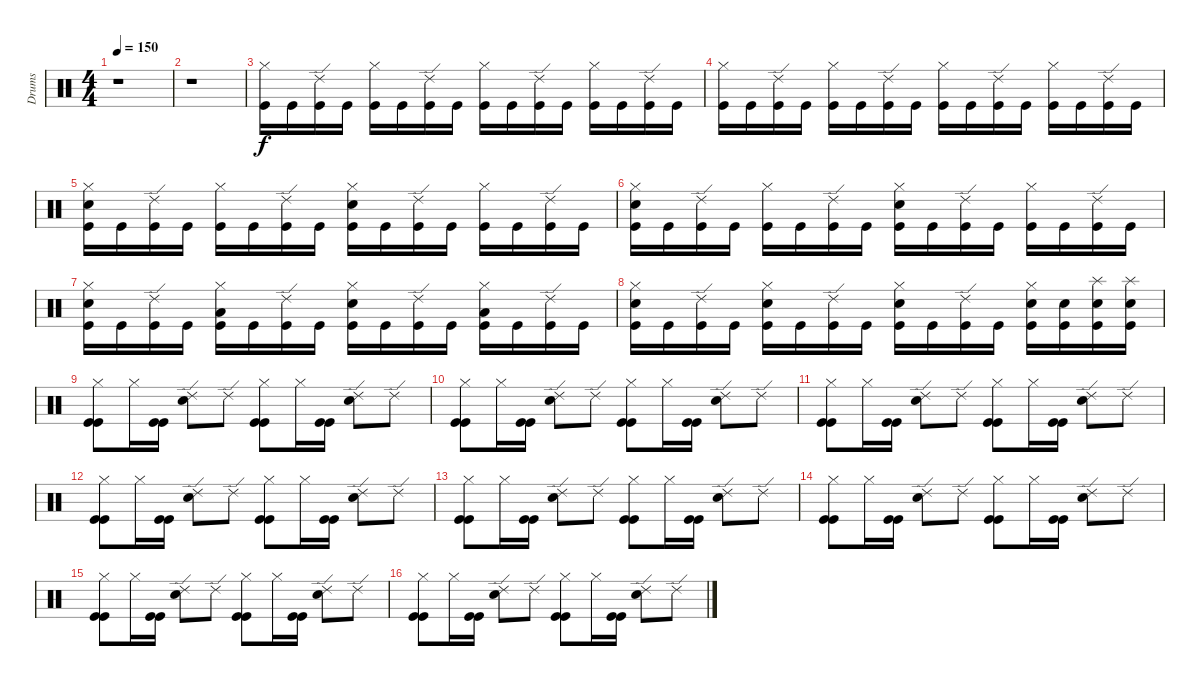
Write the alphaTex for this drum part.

\track ("Drums" "Drums") {instrument percussion}
\staff {score}
\articulation defaults
\ts (4 4)
\tempo 150
\clef neutral
\ks c
r.1{dy f} |
r.1 |
("Hi-Hat (closed)" "Kick (hit)").16 "Kick (hit)".16 ("Ride (edge) 2" "Kick (hit)").16 "Kick (hit)".16 ("Hi-Hat (closed)" "Kick (hit)").16 "Kick (hit)".16 ("Ride (edge) 2" "Kick (hit)").16 "Kick (hit)".16 ("Hi-Hat (closed)" "Kick (hit)").16 "Kick (hit)".16 ("Ride (edge) 2" "Kick (hit)").16 "Kick (hit)".16 ("Hi-Hat (closed)" "Kick (hit)").16 "Kick (hit)".16 ("Ride (edge) 2" "Kick (hit)").16 "Kick (hit)".16 |
("Hi-Hat (closed)" "Kick (hit)").16 "Kick (hit)".16 ("Ride (edge) 2" "Kick (hit)").16 "Kick (hit)".16 ("Hi-Hat (closed)" "Kick (hit)").16 "Kick (hit)".16 ("Ride (edge) 2" "Kick (hit)").16 "Kick (hit)".16 ("Hi-Hat (closed)" "Kick (hit)").16 "Kick (hit)".16 ("Ride (edge) 2" "Kick (hit)").16 "Kick (hit)".16 ("Hi-Hat (closed)" "Kick (hit)").16 "Kick (hit)".16 ("Ride (edge) 2" "Kick (hit)").16 "Kick (hit)".16 |
("Hi-Hat (closed)" "Snare (hit) 2" "Kick (hit)").16 "Kick (hit)".16 ("Ride (edge) 2" "Kick (hit)").16 "Kick (hit)".16 ("Hi-Hat (closed)" "Kick (hit)").16 "Kick (hit)".16 ("Ride (edge) 2" "Kick (hit)").16 "Kick (hit)".16 ("Hi-Hat (closed)" "Snare (hit) 2" "Kick (hit)").16 "Kick (hit)".16 ("Ride (edge) 2" "Kick (hit)").16 "Kick (hit)".16 ("Hi-Hat (closed)" "Kick (hit)").16 "Kick (hit)".16 ("Ride (edge) 2" "Kick (hit)").16 "Kick (hit)".16 |
("Hi-Hat (closed)" "Snare (hit) 2" "Kick (hit)").16 "Kick (hit)".16 ("Ride (edge) 2" "Kick (hit)").16 "Kick (hit)".16 ("Hi-Hat (closed)" "Kick (hit)").16 "Kick (hit)".16 ("Ride (edge) 2" "Kick (hit)").16 "Kick (hit)".16 ("Hi-Hat (closed)" "Snare (hit) 2" "Kick (hit)").16 "Kick (hit)".16 ("Ride (edge) 2" "Kick (hit)").16 "Kick (hit)".16 ("Hi-Hat (closed)" "Kick (hit)").16 "Kick (hit)".16 ("Ride (edge) 2" "Kick (hit)").16 "Kick (hit)".16 |
("Hi-Hat (closed)" "Snare (hit) 2" "Kick (hit)").16 "Kick (hit)".16 ("Ride (edge) 2" "Kick (hit)").16 "Kick (hit)".16 ("Hi-Hat (closed)" "Low Tom (hit)" "Kick (hit)").16 "Kick (hit)".16 ("Ride (edge) 2" "Kick (hit)").16 "Kick (hit)".16 ("Hi-Hat (closed)" "Snare (hit) 2" "Kick (hit)").16 "Kick (hit)".16 ("Ride (edge) 2" "Kick (hit)").16 "Kick (hit)".16 ("Hi-Hat (closed)" "Low Tom (hit)" "Kick (hit)").16 "Kick (hit)".16 ("Ride (edge) 2" "Kick (hit)").16 "Kick (hit)".16 |
("Hi-Hat (closed)" "Snare (hit) 2" "Kick (hit)").16 "Kick (hit)".16 ("Ride (edge) 2" "Kick (hit)").16 "Kick (hit)".16 ("Hi-Hat (closed)" "Snare (hit) 2" "Kick (hit)").16 "Kick (hit)".16 ("Ride (edge) 2" "Kick (hit)").16 "Kick (hit)".16 ("Hi-Hat (closed)" "Snare (hit) 2" "Kick (hit)").16 "Kick (hit)".16 ("Ride (edge) 2" "Kick (hit)").16 "Kick (hit)".16 ("Hi-Hat (closed)" "Snare (hit) 2" "Kick (hit)").16 ("Snare (hit) 2" "Kick (hit)").16 ("Splash (hit)" "Snare (hit) 2" "Kick (hit)").16 ("Splash (hit)" "Snare (hit) 2" "Kick (hit)").16 |
("Hi-Hat (closed)" "Kick (hit)" "Kick (hit)").8 "Hi-Hat (closed)".16 ("Kick (hit)" "Kick (hit)").16 ("Ride (edge) 2" "Snare (hit) 2").8 "Ride (edge) 2".8 ("Hi-Hat (closed)" "Kick (hit)" "Kick (hit)").8 "Hi-Hat (closed)".16 ("Kick (hit)" "Kick (hit)").16 ("Ride (edge) 2" "Snare (hit) 2").8 "Ride (edge) 2".8 |
("Hi-Hat (closed)" "Kick (hit)" "Kick (hit)").8 "Hi-Hat (closed)".16 ("Kick (hit)" "Kick (hit)").16 ("Ride (edge) 2" "Snare (hit) 2").8 "Ride (edge) 2".8 ("Hi-Hat (closed)" "Kick (hit)" "Kick (hit)").8 "Hi-Hat (closed)".16 ("Kick (hit)" "Kick (hit)").16 ("Ride (edge) 2" "Snare (hit) 2").8 "Ride (edge) 2".8 |
("Hi-Hat (closed)" "Kick (hit)" "Kick (hit)").8 "Hi-Hat (closed)".16 ("Kick (hit)" "Kick (hit)").16 ("Ride (edge) 2" "Snare (hit) 2").8 "Ride (edge) 2".8 ("Hi-Hat (closed)" "Kick (hit)" "Kick (hit)").8 "Hi-Hat (closed)".16 ("Kick (hit)" "Kick (hit)").16 ("Ride (edge) 2" "Snare (hit) 2").8 "Ride (edge) 2".8 |
("Hi-Hat (closed)" "Kick (hit)" "Kick (hit)").8 "Hi-Hat (closed)".16 ("Kick (hit)" "Kick (hit)").16 ("Ride (edge) 2" "Snare (hit) 2").8 "Ride (edge) 2".8 ("Hi-Hat (closed)" "Kick (hit)" "Kick (hit)").8 "Hi-Hat (closed)".16 ("Kick (hit)" "Kick (hit)").16 ("Ride (edge) 2" "Snare (hit) 2").8 "Ride (edge) 2".8 |
("Hi-Hat (closed)" "Kick (hit)" "Kick (hit)").8 "Hi-Hat (closed)".16 ("Kick (hit)" "Kick (hit)").16 ("Ride (edge) 2" "Snare (hit) 2").8 "Ride (edge) 2".8 ("Hi-Hat (closed)" "Kick (hit)" "Kick (hit)").8 "Hi-Hat (closed)".16 ("Kick (hit)" "Kick (hit)").16 ("Ride (edge) 2" "Snare (hit) 2").8 "Ride (edge) 2".8 |
("Hi-Hat (closed)" "Kick (hit)" "Kick (hit)").8 "Hi-Hat (closed)".16 ("Kick (hit)" "Kick (hit)").16 ("Ride (edge) 2" "Snare (hit) 2").8 "Ride (edge) 2".8 ("Hi-Hat (closed)" "Kick (hit)" "Kick (hit)").8 "Hi-Hat (closed)".16 ("Kick (hit)" "Kick (hit)").16 ("Ride (edge) 2" "Snare (hit) 2").8 "Ride (edge) 2".8 |
("Hi-Hat (closed)" "Kick (hit)" "Kick (hit)").8 "Hi-Hat (closed)".16 ("Kick (hit)" "Kick (hit)").16 ("Ride (edge) 2" "Snare (hit) 2").8 "Ride (edge) 2".8 ("Hi-Hat (closed)" "Kick (hit)" "Kick (hit)").8 "Hi-Hat (closed)".16 ("Kick (hit)" "Kick (hit)").16 ("Ride (edge) 2" "Snare (hit) 2").8 "Ride (edge) 2".8 |
("Hi-Hat (closed)" "Kick (hit)" "Kick (hit)").8 "Hi-Hat (closed)".16 ("Kick (hit)" "Kick (hit)").16 ("Ride (edge) 2" "Snare (hit) 2").8 "Ride (edge) 2".8 ("Hi-Hat (closed)" "Kick (hit)" "Kick (hit)").8 "Hi-Hat (closed)".16 ("Kick (hit)" "Kick (hit)").16 ("Ride (edge) 2" "Snare (hit) 2").8 "Ride (edge) 2".8
